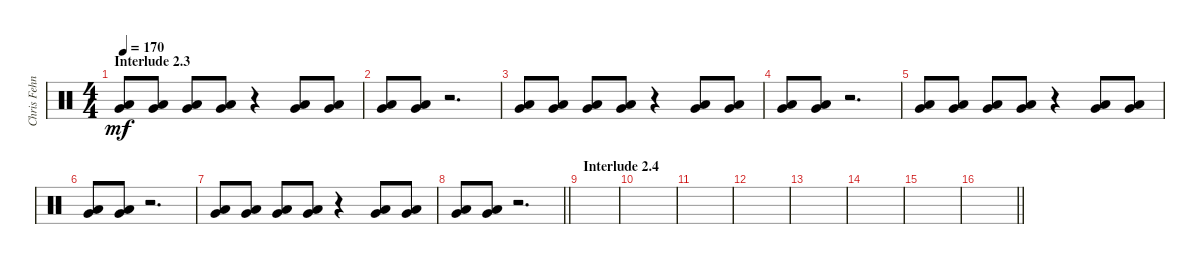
\track ("Chris Fehn" "Chris Fehn") {instrument percussion}
\staff {score}
\articulation defaults
\ts (4 4)
\section ("" "Interlude 2.3")
\tempo 170
\clef neutral
\ks c
("Very Low Tom (hit)" "Low Floor Tom (hit)").8{dy mf} ("Very Low Tom (hit)" "Low Floor Tom (hit)").8 ("Very Low Tom (hit)" "Low Floor Tom (hit)").8 ("Very Low Tom (hit)" "Low Floor Tom (hit)").8 r.4 ("Very Low Tom (hit)" "Low Floor Tom (hit)").8 ("Very Low Tom (hit)" "Low Floor Tom (hit)").8 |
("Very Low Tom (hit)" "Low Floor Tom (hit)").8 ("Very Low Tom (hit)" "Low Floor Tom (hit)").8 r.2{d} |
("Very Low Tom (hit)" "Low Floor Tom (hit)").8 ("Very Low Tom (hit)" "Low Floor Tom (hit)").8 ("Very Low Tom (hit)" "Low Floor Tom (hit)").8 ("Very Low Tom (hit)" "Low Floor Tom (hit)").8 r.4 ("Very Low Tom (hit)" "Low Floor Tom (hit)").8 ("Very Low Tom (hit)" "Low Floor Tom (hit)").8 |
("Very Low Tom (hit)" "Low Floor Tom (hit)").8 ("Very Low Tom (hit)" "Low Floor Tom (hit)").8 r.2{d} |
("Very Low Tom (hit)" "Low Floor Tom (hit)").8 ("Very Low Tom (hit)" "Low Floor Tom (hit)").8 ("Very Low Tom (hit)" "Low Floor Tom (hit)").8 ("Very Low Tom (hit)" "Low Floor Tom (hit)").8 r.4 ("Very Low Tom (hit)" "Low Floor Tom (hit)").8 ("Very Low Tom (hit)" "Low Floor Tom (hit)").8 |
("Very Low Tom (hit)" "Low Floor Tom (hit)").8 ("Very Low Tom (hit)" "Low Floor Tom (hit)").8 r.2{d} |
("Very Low Tom (hit)" "Low Floor Tom (hit)").8 ("Very Low Tom (hit)" "Low Floor Tom (hit)").8 ("Very Low Tom (hit)" "Low Floor Tom (hit)").8 ("Very Low Tom (hit)" "Low Floor Tom (hit)").8 r.4 ("Very Low Tom (hit)" "Low Floor Tom (hit)").8 ("Very Low Tom (hit)" "Low Floor Tom (hit)").8 |
\barLineRight lightlight
("Very Low Tom (hit)" "Low Floor Tom (hit)").8 ("Very Low Tom (hit)" "Low Floor Tom (hit)").8 r.2{d} |
\section ("" "Interlude 2.4")
|
|
|
|
|
|
|
\barLineRight lightlight
